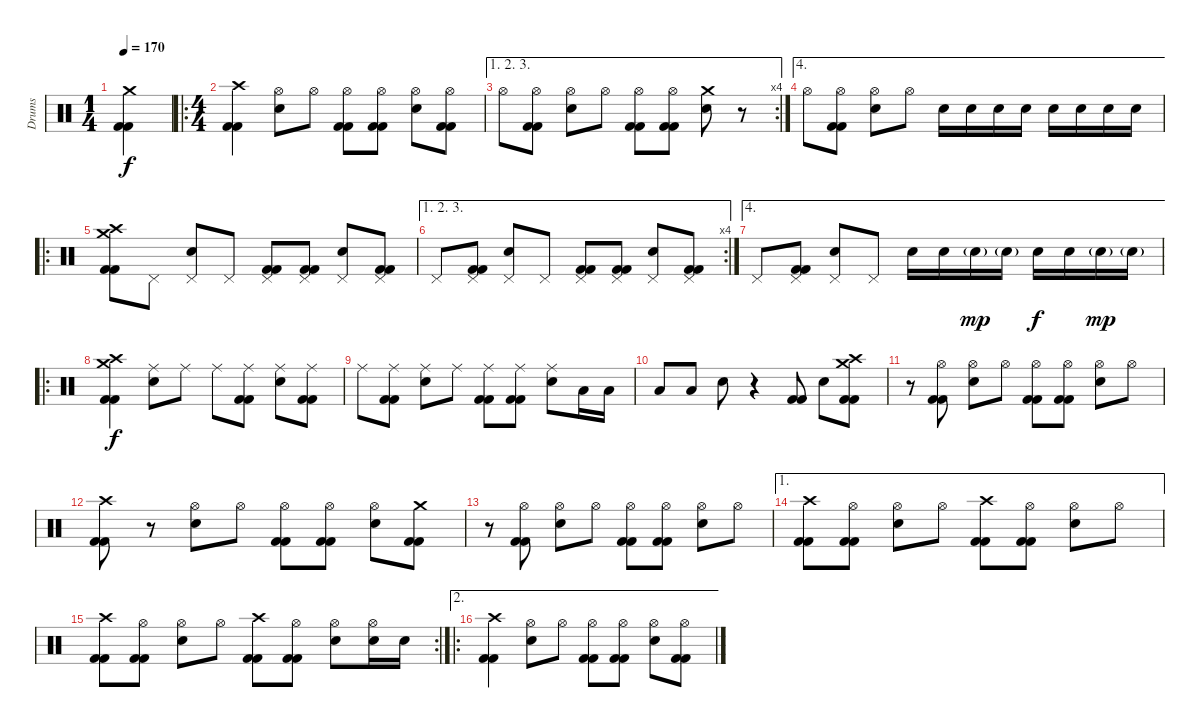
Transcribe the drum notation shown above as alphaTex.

\track ("Drums" "Drums") {instrument percussion}
\staff {score}
\articulation defaults
\ts (1 4)
\tempo 170
\clef neutral
\ks c
("Crash medium (hit)" "Kick (hit) 2" "Kick (hit) 2").4{dy f} |
\ro
\ts (4 4)
("Crash high (hit)" "Kick (hit) 2" "Kick (hit) 2").4 ("Hi-Hat (open)" "Snare (hit) 2").8 "Hi-Hat (open)".8 ("Hi-Hat (open)" "Kick (hit) 2" "Kick (hit) 2").8 ("Hi-Hat (open)" "Kick (hit) 2" "Kick (hit) 2").8 ("Hi-Hat (open)" "Snare (hit) 2").8 ("Hi-Hat (open)" "Kick (hit) 2" "Kick (hit) 2").8 |
\ae (1 2 3)
\rc 4 "Hi-Hat (open)".8
("Hi-Hat (open)" "Kick (hit) 2" "Kick (hit) 2").8 ("Hi-Hat (open)" "Snare (hit) 2").8 "Hi-Hat (open)".8 ("Hi-Hat (open)" "Kick (hit) 2" "Kick (hit) 2").8 ("Hi-Hat (open)" "Kick (hit) 2" "Kick (hit) 2").8 ("Crash medium (hit)" "Snare (hit) 2").8 r.8 |
\ae 4 "Hi-Hat (open)".8
("Hi-Hat (open)" "Kick (hit) 2" "Kick (hit) 2").8 ("Hi-Hat (open)" "Snare (hit) 2").8 "Hi-Hat (open)".8 "Snare (hit) 2".16 "Snare (hit) 2".16 "Snare (hit) 2".16 "Snare (hit) 2".16 "Snare (hit) 2".16 "Snare (hit) 2".16 "Snare (hit) 2".16 "Snare (hit) 2".16 |
\ro
("Crash high (hit)" "Crash medium (hit)" "Kick (hit) 2" "Kick (hit) 2").8 "Pedal Hi-Hat (hit)".8 ("Pedal Hi-Hat (hit)" "Snare (hit) 2").8 "Pedal Hi-Hat (hit)".8 ("Pedal Hi-Hat (hit)" "Kick (hit) 2" "Kick (hit) 2").8 ("Pedal Hi-Hat (hit)" "Kick (hit) 2" "Kick (hit) 2").8 ("Pedal Hi-Hat (hit)" "Snare (hit) 2").8 ("Pedal Hi-Hat (hit)" "Kick (hit) 2" "Kick (hit) 2").8 |
\ae (1 2 3)
\rc 4 "Pedal Hi-Hat (hit)".8
("Pedal Hi-Hat (hit)" "Kick (hit) 2" "Kick (hit) 2").8 ("Pedal Hi-Hat (hit)" "Snare (hit) 2").8 "Pedal Hi-Hat (hit)".8 ("Pedal Hi-Hat (hit)" "Kick (hit) 2" "Kick (hit) 2").8 ("Pedal Hi-Hat (hit)" "Kick (hit) 2" "Kick (hit) 2").8 ("Pedal Hi-Hat (hit)" "Snare (hit) 2").8 ("Pedal Hi-Hat (hit)" "Kick (hit) 2" "Kick (hit) 2").8 |
\ae 4 "Pedal Hi-Hat (hit)".8
("Pedal Hi-Hat (hit)" "Kick (hit) 2" "Kick (hit) 2").8 ("Pedal Hi-Hat (hit)" "Snare (hit) 2").8 "Pedal Hi-Hat (hit)".8 "Snare (hit) 2".16 "Snare (hit) 2".16 "Snare (hit) 2"{g}.16{dy mp} "Snare (hit) 2"{g}.16 "Snare (hit) 2".16{dy f} "Snare (hit) 2".16 "Snare (hit) 2"{g}.16{dy mp} "Snare (hit) 2"{g}.16 |
\ro
("Crash high (hit)" "Crash medium (hit)" "Kick (hit) 2" "Kick (hit) 2").4{dy f} ("Ride (middle)" "Snare (hit) 2").8 "Ride (middle)".8 "Ride (middle)".8 ("Ride (middle)" "Kick (hit) 2" "Kick (hit) 2").8 ("Ride (middle)" "Snare (hit) 2").8 ("Ride (middle)" "Kick (hit) 2" "Kick (hit) 2").8 |
"Ride (middle)".8 ("Ride (middle)" "Kick (hit) 2" "Kick (hit) 2").8 ("Ride (middle)" "Snare (hit) 2").8 "Ride (middle)".8 ("Ride (middle)" "Kick (hit) 2" "Kick (hit) 2").8 ("Ride (middle)" "Kick (hit) 2" "Kick (hit) 2").8 ("Ride (middle)" "Snare (hit) 2").8 "Low Tom (hit)".16 "Low Tom (hit)".16 |
"Low Tom (hit)".8 "Low Tom (hit)".8 "Snare (hit) 2".8 r.4 ("Kick (hit) 2" "Kick (hit) 2").8 "Snare (hit) 2".8 ("Crash high (hit)" "Crash medium (hit)" "Kick (hit) 2" "Kick (hit) 2").8 |
r.8 ("Hi-Hat (open)" "Kick (hit) 2" "Kick (hit) 2").8 ("Hi-Hat (open)" "Snare (hit) 2").8 "Hi-Hat (open)".8 ("Hi-Hat (open)" "Kick (hit) 2" "Kick (hit) 2").8 ("Hi-Hat (open)" "Kick (hit) 2" "Kick (hit) 2").8 ("Hi-Hat (open)" "Snare (hit) 2").8 "Hi-Hat (open)".8 |
("Crash high (hit)" "Kick (hit) 2" "Kick (hit) 2").8 r.8 ("Hi-Hat (open)" "Snare (hit) 2").8 "Hi-Hat (open)".8 ("Hi-Hat (open)" "Kick (hit) 2" "Kick (hit) 2").8 ("Hi-Hat (open)" "Kick (hit) 2" "Kick (hit) 2").8 ("Hi-Hat (open)" "Snare (hit) 2").8 ("Crash medium (hit)" "Kick (hit) 2" "Kick (hit) 2").8 |
r.8 ("Hi-Hat (open)" "Kick (hit) 2" "Kick (hit) 2").8 ("Hi-Hat (open)" "Snare (hit) 2").8 "Hi-Hat (open)".8 ("Hi-Hat (open)" "Kick (hit) 2" "Kick (hit) 2").8 ("Hi-Hat (open)" "Kick (hit) 2" "Kick (hit) 2").8 ("Hi-Hat (open)" "Snare (hit) 2").8 "Hi-Hat (open)".8 |
\ae 1
("Crash high (hit)" "Kick (hit) 2" "Kick (hit) 2").8 ("Hi-Hat (open)" "Kick (hit) 2" "Kick (hit) 2").8 ("Hi-Hat (open)" "Snare (hit) 2").8 "Hi-Hat (open)".8 ("Crash high (hit)" "Kick (hit) 2" "Kick (hit) 2").8 ("Hi-Hat (open)" "Kick (hit) 2" "Kick (hit) 2").8 ("Hi-Hat (open)" "Snare (hit) 2").8 "Hi-Hat (open)".8 |
\rc 2
("Crash high (hit)" "Kick (hit) 2" "Kick (hit) 2").8 ("Hi-Hat (open)" "Kick (hit) 2" "Kick (hit) 2").8 ("Hi-Hat (open)" "Snare (hit) 2").8 "Hi-Hat (open)".8 ("Crash high (hit)" "Kick (hit) 2" "Kick (hit) 2").8 ("Hi-Hat (open)" "Kick (hit) 2" "Kick (hit) 2").8 ("Hi-Hat (open)" "Snare (hit) 2").8 ("Hi-Hat (open)" "Snare (hit) 2").16 "Snare (hit) 2".16 |
\ae 2
\ro
("Crash high (hit)" "Kick (hit) 2" "Kick (hit) 2").4 ("Hi-Hat (open)" "Snare (hit) 2").8 "Hi-Hat (open)".8 ("Hi-Hat (open)" "Kick (hit) 2" "Kick (hit) 2").8 ("Hi-Hat (open)" "Kick (hit) 2" "Kick (hit) 2").8 ("Hi-Hat (open)" "Snare (hit) 2").8 ("Hi-Hat (open)" "Kick (hit) 2" "Kick (hit) 2").8
